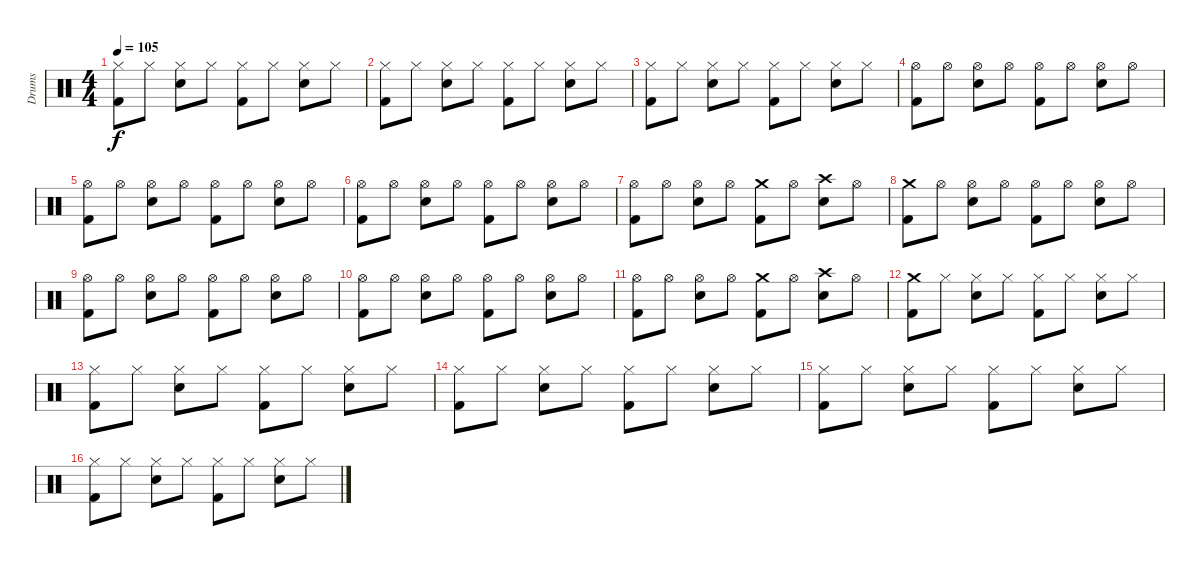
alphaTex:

\track ("Drums" "Drums") {instrument percussion}
\staff {score}
\articulation defaults
\ts (4 4)
\tempo 105
\clef neutral
\ks c
("Hi-Hat (closed)" "Kick (hit) 2").8{dy f} "Hi-Hat (closed)".8 ("Hi-Hat (closed)" "Electric Snare (hit)").8 "Hi-Hat (closed)".8 ("Hi-Hat (closed)" "Kick (hit) 2").8 "Hi-Hat (closed)".8 ("Hi-Hat (closed)" "Electric Snare (hit)").8 "Hi-Hat (closed)".8 |
("Hi-Hat (closed)" "Kick (hit) 2").8 "Hi-Hat (closed)".8 ("Hi-Hat (closed)" "Electric Snare (hit)").8 "Hi-Hat (closed)".8 ("Hi-Hat (closed)" "Kick (hit) 2").8 "Hi-Hat (closed)".8 ("Hi-Hat (closed)" "Electric Snare (hit)").8 "Hi-Hat (closed)".8 |
("Hi-Hat (closed)" "Kick (hit) 2").8 "Hi-Hat (closed)".8 ("Hi-Hat (closed)" "Electric Snare (hit)").8 "Hi-Hat (closed)".8 ("Hi-Hat (closed)" "Kick (hit) 2").8 "Hi-Hat (closed)".8 ("Hi-Hat (closed)" "Electric Snare (hit)").8 "Hi-Hat (closed)".8 |
("Hi-Hat (open)" "Kick (hit) 2").8 "Hi-Hat (open)".8 ("Hi-Hat (open)" "Electric Snare (hit)").8 "Hi-Hat (open)".8 ("Hi-Hat (open)" "Kick (hit) 2").8 "Hi-Hat (open)".8 ("Hi-Hat (open)" "Electric Snare (hit)").8 "Hi-Hat (open)".8 |
("Hi-Hat (open)" "Kick (hit) 2").8 "Hi-Hat (open)".8 ("Hi-Hat (open)" "Electric Snare (hit)").8 "Hi-Hat (open)".8 ("Hi-Hat (open)" "Kick (hit) 2").8 "Hi-Hat (open)".8 ("Hi-Hat (open)" "Electric Snare (hit)").8 "Hi-Hat (open)".8 |
("Hi-Hat (open)" "Kick (hit) 2").8 "Hi-Hat (open)".8 ("Hi-Hat (open)" "Electric Snare (hit)").8 "Hi-Hat (open)".8 ("Hi-Hat (open)" "Kick (hit) 2").8 "Hi-Hat (open)".8 ("Hi-Hat (open)" "Electric Snare (hit)").8 "Hi-Hat (open)".8 |
("Hi-Hat (open)" "Kick (hit) 2").8 "Hi-Hat (open)".8 ("Hi-Hat (open)" "Electric Snare (hit)").8 "Hi-Hat (open)".8 ("Crash medium (hit)" "Kick (hit) 2").8 "Hi-Hat (open)".8 ("Crash high (hit)" "Electric Snare (hit)").8 "Hi-Hat (open)".8 |
("Crash medium (hit)" "Kick (hit) 2").8 "Hi-Hat (open)".8 ("Hi-Hat (open)" "Electric Snare (hit)").8 "Hi-Hat (open)".8 ("Hi-Hat (open)" "Kick (hit) 2").8 "Hi-Hat (open)".8 ("Hi-Hat (open)" "Electric Snare (hit)").8 "Hi-Hat (open)".8 |
("Hi-Hat (open)" "Kick (hit) 2").8 "Hi-Hat (open)".8 ("Hi-Hat (open)" "Electric Snare (hit)").8 "Hi-Hat (open)".8 ("Hi-Hat (open)" "Kick (hit) 2").8 "Hi-Hat (open)".8 ("Hi-Hat (open)" "Electric Snare (hit)").8 "Hi-Hat (open)".8 |
("Hi-Hat (open)" "Kick (hit) 2").8 "Hi-Hat (open)".8 ("Hi-Hat (open)" "Electric Snare (hit)").8 "Hi-Hat (open)".8 ("Hi-Hat (open)" "Kick (hit) 2").8 "Hi-Hat (open)".8 ("Hi-Hat (open)" "Electric Snare (hit)").8 "Hi-Hat (open)".8 |
("Hi-Hat (open)" "Kick (hit) 2").8 "Hi-Hat (open)".8 ("Hi-Hat (open)" "Electric Snare (hit)").8 "Hi-Hat (open)".8 ("Crash medium (hit)" "Kick (hit) 2").8 "Hi-Hat (open)".8 ("Crash high (hit)" "Electric Snare (hit)").8 "Hi-Hat (open)".8 |
("Crash medium (hit)" "Kick (hit) 2").8 "Hi-Hat (closed)".8 ("Hi-Hat (closed)" "Electric Snare (hit)").8 "Hi-Hat (closed)".8 ("Hi-Hat (closed)" "Kick (hit) 2").8 "Hi-Hat (closed)".8 ("Hi-Hat (closed)" "Electric Snare (hit)").8 "Hi-Hat (closed)".8 |
("Hi-Hat (closed)" "Kick (hit) 2").8 "Hi-Hat (closed)".8 ("Hi-Hat (closed)" "Electric Snare (hit)").8 "Hi-Hat (closed)".8 ("Hi-Hat (closed)" "Kick (hit) 2").8 "Hi-Hat (closed)".8 ("Hi-Hat (closed)" "Electric Snare (hit)").8 "Hi-Hat (closed)".8 |
("Hi-Hat (closed)" "Kick (hit) 2").8 "Hi-Hat (closed)".8 ("Hi-Hat (closed)" "Electric Snare (hit)").8 "Hi-Hat (closed)".8 ("Hi-Hat (closed)" "Kick (hit) 2").8 "Hi-Hat (closed)".8 ("Hi-Hat (closed)" "Electric Snare (hit)").8 "Hi-Hat (closed)".8 |
("Hi-Hat (closed)" "Kick (hit) 2").8 "Hi-Hat (closed)".8 ("Hi-Hat (closed)" "Electric Snare (hit)").8 "Hi-Hat (closed)".8 ("Hi-Hat (closed)" "Kick (hit) 2").8 "Hi-Hat (closed)".8 ("Hi-Hat (closed)" "Electric Snare (hit)").8 "Hi-Hat (closed)".8 |
("Hi-Hat (closed)" "Kick (hit) 2").8 "Hi-Hat (closed)".8 ("Hi-Hat (closed)" "Electric Snare (hit)").8 "Hi-Hat (closed)".8 ("Hi-Hat (closed)" "Kick (hit) 2").8 "Hi-Hat (closed)".8 ("Hi-Hat (closed)" "Electric Snare (hit)").8 "Hi-Hat (closed)".8
